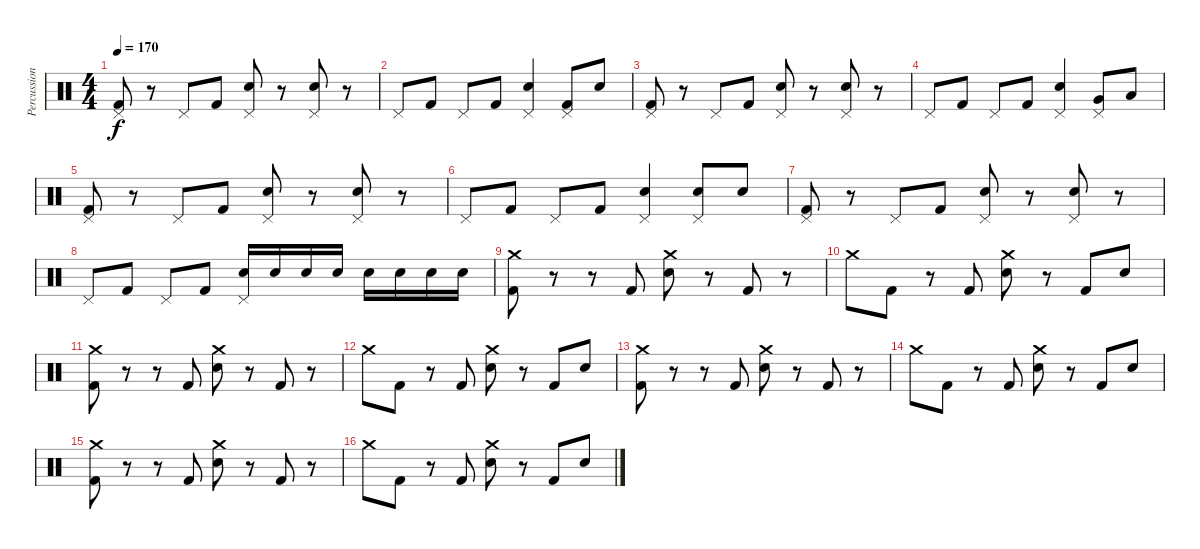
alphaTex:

\track ("Percussion" "Percussion") {instrument percussion}
\staff {score}
\articulation defaults
\ts (4 4)
\tempo 170
\clef neutral
\ks c
("Pedal Hi-Hat (hit)" "Kick (hit) 2").8{dy f} r.8 "Pedal Hi-Hat (hit)".8 "Kick (hit) 2".8 ("Pedal Hi-Hat (hit)" "Electric Snare (hit)").8 r.8 ("Pedal Hi-Hat (hit)" "Electric Snare (hit)").8 r.8 |
"Pedal Hi-Hat (hit)".8 "Kick (hit) 2".8 "Pedal Hi-Hat (hit)".8 "Kick (hit) 2".8 ("Pedal Hi-Hat (hit)" "Electric Snare (hit)").4 ("Pedal Hi-Hat (hit)" "Kick (hit) 2").8 "Electric Snare (hit)".8 |
("Pedal Hi-Hat (hit)" "Kick (hit) 2").8 r.8 "Pedal Hi-Hat (hit)".8 "Kick (hit) 2".8 ("Pedal Hi-Hat (hit)" "Electric Snare (hit)").8 r.8 ("Pedal Hi-Hat (hit)" "Electric Snare (hit)").8 r.8 |
"Pedal Hi-Hat (hit)".8 "Kick (hit) 2".8 "Pedal Hi-Hat (hit)".8 "Kick (hit) 2".8 ("Pedal Hi-Hat (hit)" "Electric Snare (hit)").4 ("Pedal Hi-Hat (hit)" "Very Low Tom (hit)").8 "Low Floor Tom (hit)".8 |
("Pedal Hi-Hat (hit)" "Kick (hit) 2").8 r.8 "Pedal Hi-Hat (hit)".8 "Kick (hit) 2".8 ("Pedal Hi-Hat (hit)" "Electric Snare (hit)").8 r.8 ("Pedal Hi-Hat (hit)" "Electric Snare (hit)").8 r.8 |
"Pedal Hi-Hat (hit)".8 "Kick (hit) 2".8 "Pedal Hi-Hat (hit)".8 "Kick (hit) 2".8 ("Pedal Hi-Hat (hit)" "Electric Snare (hit)").4 ("Pedal Hi-Hat (hit)" "Electric Snare (hit)").8 "Electric Snare (hit)".8 |
("Pedal Hi-Hat (hit)" "Kick (hit) 2").8 r.8 "Pedal Hi-Hat (hit)".8 "Kick (hit) 2".8 ("Pedal Hi-Hat (hit)" "Electric Snare (hit)").8 r.8 ("Pedal Hi-Hat (hit)" "Electric Snare (hit)").8 r.8 |
"Pedal Hi-Hat (hit)".8 "Kick (hit) 2".8 "Pedal Hi-Hat (hit)".8 "Kick (hit) 2".8 ("Pedal Hi-Hat (hit)" "Electric Snare (hit)").16 "Electric Snare (hit)".16 "Electric Snare (hit)".16 "Electric Snare (hit)".16 "Electric Snare (hit)".16 "Electric Snare (hit)".16 "Electric Snare (hit)".16 "Electric Snare (hit)".16 |
("Crash medium (hit)" "Kick (hit) 2").8 r.8 r.8 "Kick (hit) 2".8 ("Crash medium (hit)" "Electric Snare (hit)").8 r.8 "Kick (hit) 2".8 r.8 |
"Crash medium (hit)".8 "Kick (hit) 2".8 r.8 "Kick (hit) 2".8 ("Crash medium (hit)" "Electric Snare (hit)").8 r.8 "Kick (hit) 2".8 "Electric Snare (hit)".8 |
("Crash medium (hit)" "Kick (hit) 2").8 r.8 r.8 "Kick (hit) 2".8 ("Crash medium (hit)" "Electric Snare (hit)").8 r.8 "Kick (hit) 2".8 r.8 |
"Crash medium (hit)".8 "Kick (hit) 2".8 r.8 "Kick (hit) 2".8 ("Crash medium (hit)" "Electric Snare (hit)").8 r.8 "Kick (hit) 2".8 "Electric Snare (hit)".8 |
("Crash medium (hit)" "Kick (hit) 2").8 r.8 r.8 "Kick (hit) 2".8 ("Crash medium (hit)" "Electric Snare (hit)").8 r.8 "Kick (hit) 2".8 r.8 |
"Crash medium (hit)".8 "Kick (hit) 2".8 r.8 "Kick (hit) 2".8 ("Crash medium (hit)" "Electric Snare (hit)").8 r.8 "Kick (hit) 2".8 "Electric Snare (hit)".8 |
("Crash medium (hit)" "Kick (hit) 2").8 r.8 r.8 "Kick (hit) 2".8 ("Crash medium (hit)" "Electric Snare (hit)").8 r.8 "Kick (hit) 2".8 r.8 |
"Crash medium (hit)".8 "Kick (hit) 2".8 r.8 "Kick (hit) 2".8 ("Crash medium (hit)" "Electric Snare (hit)").8 r.8 "Kick (hit) 2".8 "Electric Snare (hit)".8
